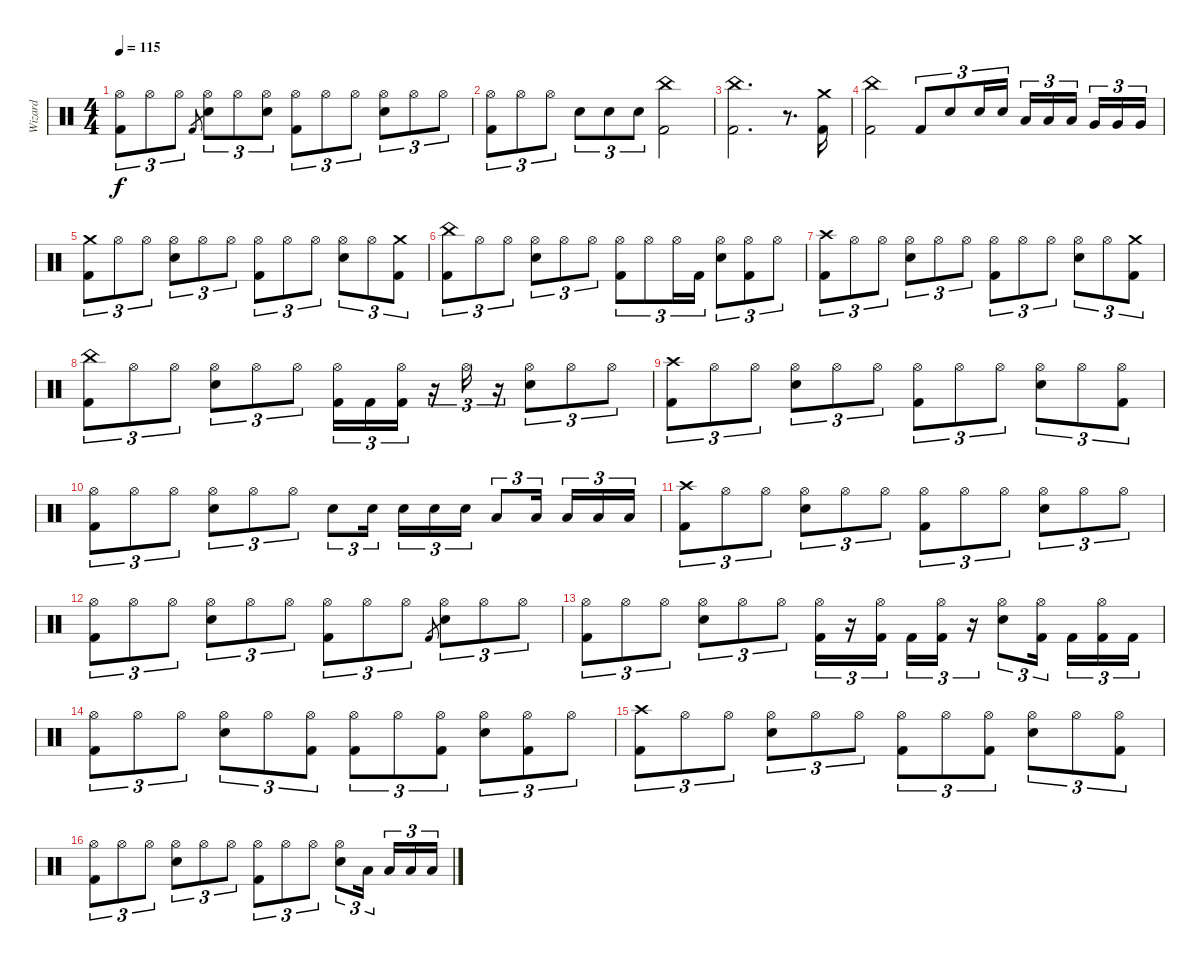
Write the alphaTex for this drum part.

\track ("Wizard" "Wizard") {instrument percussion}
\staff {score}
\articulation defaults
\ts (4 4)
\tempo 115
\clef neutral
\ks c
("Hi-Hat (open)" "Kick (hit) 2").8{tu (3 2) dy f} "Hi-Hat (open)".8{tu (3 2)} "Hi-Hat (open)".8{tu (3 2)} "Kick (hit) 2".8{gr} ("Hi-Hat (open)" "Snare (hit) 2").8{tu (3 2)} "Hi-Hat (open)".8{tu (3 2)} ("Hi-Hat (open)" "Snare (hit) 2").8{tu (3 2)} ("Hi-Hat (open)" "Kick (hit) 2").8{tu (3 2)} "Hi-Hat (open)".8{tu (3 2)} "Hi-Hat (open)".8{tu (3 2)} ("Hi-Hat (open)" "Snare (hit) 2").8{tu (3 2)} "Hi-Hat (open)".8{tu (3 2)} "Hi-Hat (open)".8{tu (3 2)} |
("Hi-Hat (open)" "Kick (hit) 2").8{tu (3 2)} "Hi-Hat (open)".8{tu (3 2)} "Hi-Hat (open)".8{tu (3 2)} "Snare (hit) 2".8{tu (3 2)} "Snare (hit) 2".8{tu (3 2)} "Snare (hit) 2".8{tu (3 2)} ("China (hit)" "Kick (hit) 2").2 |
("China (hit)" "Kick (hit) 2").2{d} r.8{d} ("Crash medium (hit)" "Kick (hit) 2").16 |
("China (hit)" "Kick (hit) 2").2 "Kick (hit) 2".8{tu (3 2)} "Snare (hit) 2".8{tu (3 2)} "Snare (hit) 2".16{tu (3 2)} "Snare (hit) 2".16{tu (3 2)} "Low Tom (hit)".16{tu (3 2)} "Low Tom (hit)".16{tu (3 2)} "Low Tom (hit)".16{tu (3 2) beam splitsecondary} "Very Low Tom (hit)".16{tu (3 2)} "Very Low Tom (hit)".16{tu (3 2)} "Very Low Tom (hit)".16{tu (3 2)} |
("Crash medium (hit)" "Kick (hit) 2").8{tu (3 2)} "Hi-Hat (open)".8{tu (3 2)} "Hi-Hat (open)".8{tu (3 2)} ("Hi-Hat (open)" "Snare (hit) 2").8{tu (3 2)} "Hi-Hat (open)".8{tu (3 2)} "Hi-Hat (open)".8{tu (3 2)} ("Hi-Hat (open)" "Kick (hit) 2").8{tu (3 2)} "Hi-Hat (open)".8{tu (3 2)} "Hi-Hat (open)".8{tu (3 2)} ("Hi-Hat (open)" "Snare (hit) 2").8{tu (3 2)} "Hi-Hat (open)".8{tu (3 2)} ("Crash medium (hit)" "Kick (hit) 2").8{tu (3 2)} |
("China (hit)" "Kick (hit) 2").8{tu (3 2)} "Hi-Hat (open)".8{tu (3 2)} "Hi-Hat (open)".8{tu (3 2)} ("Hi-Hat (open)" "Snare (hit) 2").8{tu (3 2)} "Hi-Hat (open)".8{tu (3 2)} "Hi-Hat (open)".8{tu (3 2)} ("Hi-Hat (open)" "Kick (hit) 2").8{tu (3 2)} "Hi-Hat (open)".8{tu (3 2)} "Hi-Hat (open)".16{tu (3 2)} "Kick (hit) 2".16{tu (3 2)} ("Hi-Hat (open)" "Snare (hit) 2").8{tu (3 2)} ("Hi-Hat (open)" "Kick (hit) 2").8{tu (3 2)} "Hi-Hat (open)".8{tu (3 2)} |
("Crash high (hit)" "Kick (hit) 2").8{tu (3 2)} "Hi-Hat (open)".8{tu (3 2)} "Hi-Hat (open)".8{tu (3 2)} ("Hi-Hat (open)" "Snare (hit) 2").8{tu (3 2)} "Hi-Hat (open)".8{tu (3 2)} "Hi-Hat (open)".8{tu (3 2)} ("Hi-Hat (open)" "Kick (hit) 2").8{tu (3 2)} "Hi-Hat (open)".8{tu (3 2)} "Hi-Hat (open)".8{tu (3 2)} ("Hi-Hat (open)" "Snare (hit) 2").8{tu (3 2)} "Hi-Hat (open)".8{tu (3 2)} ("Crash medium (hit)" "Kick (hit) 2").8{tu (3 2)} |
("China (hit)" "Kick (hit) 2").8{tu (3 2)} "Hi-Hat (open)".8{tu (3 2)} "Hi-Hat (open)".8{tu (3 2)} ("Hi-Hat (open)" "Snare (hit) 2").8{tu (3 2)} "Hi-Hat (open)".8{tu (3 2)} "Hi-Hat (open)".8{tu (3 2)} ("Hi-Hat (open)" "Kick (hit) 2").16{tu (3 2)} "Kick (hit) 2".16{tu (3 2)} ("Hi-Hat (open)" "Kick (hit) 2").16{tu (3 2)} r.16{tu (3 2)} "Hi-Hat (open)".16{tu (3 2)} r.16{tu (3 2)} ("Hi-Hat (open)" "Snare (hit) 2").8{tu (3 2)} "Hi-Hat (open)".8{tu (3 2)} "Hi-Hat (open)".8{tu (3 2)} |
("Crash high (hit)" "Kick (hit) 2").8{tu (3 2)} "Hi-Hat (open)".8{tu (3 2)} "Hi-Hat (open)".8{tu (3 2)} ("Hi-Hat (open)" "Snare (hit) 2").8{tu (3 2)} "Hi-Hat (open)".8{tu (3 2)} "Hi-Hat (open)".8{tu (3 2)} ("Hi-Hat (open)" "Kick (hit) 2").8{tu (3 2)} "Hi-Hat (open)".8{tu (3 2)} "Hi-Hat (open)".8{tu (3 2)} ("Hi-Hat (open)" "Snare (hit) 2").8{tu (3 2)} "Hi-Hat (open)".8{tu (3 2)} ("Hi-Hat (open)" "Kick (hit) 2").8{tu (3 2)} |
("Hi-Hat (open)" "Kick (hit) 2").8{tu (3 2)} "Hi-Hat (open)".8{tu (3 2)} "Hi-Hat (open)".8{tu (3 2)} ("Hi-Hat (open)" "Snare (hit) 2").8{tu (3 2)} "Hi-Hat (open)".8{tu (3 2)} "Hi-Hat (open)".8{tu (3 2)} "Snare (hit) 2".8{tu (3 2)} "Snare (hit) 2".16{tu (3 2) beam splitsecondary} "Snare (hit) 2".16{tu (3 2)} "Snare (hit) 2".16{tu (3 2)} "Snare (hit) 2".16{tu (3 2)} "Low Tom (hit)".8{tu (3 2)} "Low Tom (hit)".16{tu (3 2) beam splitsecondary} "Low Tom (hit)".16{tu (3 2)} "Low Tom (hit)".16{tu (3 2)} "Low Tom (hit)".16{tu (3 2)} |
("Crash high (hit)" "Kick (hit) 2").8{tu (3 2)} "Hi-Hat (open)".8{tu (3 2)} "Hi-Hat (open)".8{tu (3 2)} ("Hi-Hat (open)" "Snare (hit) 2").8{tu (3 2)} "Hi-Hat (open)".8{tu (3 2)} "Hi-Hat (open)".8{tu (3 2)} ("Hi-Hat (open)" "Kick (hit) 2").8{tu (3 2)} "Hi-Hat (open)".8{tu (3 2)} "Hi-Hat (open)".8{tu (3 2)} ("Hi-Hat (open)" "Snare (hit) 2").8{tu (3 2)} "Hi-Hat (open)".8{tu (3 2)} "Hi-Hat (open)".8{tu (3 2)} |
("Hi-Hat (open)" "Kick (hit) 2").8{tu (3 2)} "Hi-Hat (open)".8{tu (3 2)} "Hi-Hat (open)".8{tu (3 2)} ("Hi-Hat (open)" "Snare (hit) 2").8{tu (3 2)} "Hi-Hat (open)".8{tu (3 2)} "Hi-Hat (open)".8{tu (3 2)} ("Hi-Hat (open)" "Kick (hit) 2").8{tu (3 2)} "Hi-Hat (open)".8{tu (3 2)} "Hi-Hat (open)".8{tu (3 2)} "Kick (hit) 2".8{gr} ("Hi-Hat (open)" "Snare (hit) 2").8{tu (3 2)} "Hi-Hat (open)".8{tu (3 2)} "Hi-Hat (open)".8{tu (3 2)} |
("Hi-Hat (open)" "Kick (hit) 2").8{tu (3 2)} "Hi-Hat (open)".8{tu (3 2)} "Hi-Hat (open)".8{tu (3 2)} ("Hi-Hat (open)" "Snare (hit) 2").8{tu (3 2)} "Hi-Hat (open)".8{tu (3 2)} "Hi-Hat (open)".8{tu (3 2)} ("Hi-Hat (open)" "Kick (hit) 2").16{tu (3 2)} r.16{tu (3 2)} ("Hi-Hat (open)" "Kick (hit) 2").16{tu (3 2) beam splitsecondary} "Kick (hit) 2".16{tu (3 2)} ("Hi-Hat (open)" "Kick (hit) 2").16{tu (3 2)} r.16{tu (3 2)} ("Hi-Hat (open)" "Snare (hit) 2").8{tu (3 2)} ("Hi-Hat (open)" "Kick (hit) 2").16{tu (3 2) beam splitsecondary} "Kick (hit) 2".16{tu (3 2)} ("Hi-Hat (open)" "Kick (hit) 2").16{tu (3 2)} "Kick (hit) 2".16{tu (3 2)} |
("Hi-Hat (open)" "Kick (hit) 2").8{tu (3 2)} "Hi-Hat (open)".8{tu (3 2)} "Hi-Hat (open)".8{tu (3 2)} ("Hi-Hat (open)" "Snare (hit) 2").8{tu (3 2)} "Hi-Hat (open)".8{tu (3 2)} ("Hi-Hat (open)" "Kick (hit) 2").8{tu (3 2)} ("Hi-Hat (open)" "Kick (hit) 2").8{tu (3 2)} "Hi-Hat (open)".8{tu (3 2)} ("Hi-Hat (open)" "Kick (hit) 2").8{tu (3 2)} ("Hi-Hat (open)" "Snare (hit) 2").8{tu (3 2)} ("Hi-Hat (open)" "Kick (hit) 2").8{tu (3 2)} "Hi-Hat (open)".8{tu (3 2)} |
("Crash high (hit)" "Kick (hit) 2").8{tu (3 2)} "Hi-Hat (open)".8{tu (3 2)} "Hi-Hat (open)".8{tu (3 2)} ("Hi-Hat (open)" "Snare (hit) 2").8{tu (3 2)} "Hi-Hat (open)".8{tu (3 2)} "Hi-Hat (open)".8{tu (3 2)} ("Hi-Hat (open)" "Kick (hit) 2").8{tu (3 2)} "Hi-Hat (open)".8{tu (3 2)} ("Hi-Hat (open)" "Kick (hit) 2").8{tu (3 2)} ("Hi-Hat (open)" "Snare (hit) 2").8{tu (3 2)} "Hi-Hat (open)".8{tu (3 2)} ("Hi-Hat (open)" "Kick (hit) 2").8{tu (3 2)} |
("Hi-Hat (open)" "Kick (hit) 2").8{tu (3 2)} "Hi-Hat (open)".8{tu (3 2)} "Hi-Hat (open)".8{tu (3 2)} ("Hi-Hat (open)" "Snare (hit) 2").8{tu (3 2)} "Hi-Hat (open)".8{tu (3 2)} "Hi-Hat (open)".8{tu (3 2)} ("Hi-Hat (open)" "Kick (hit) 2").8{tu (3 2)} "Hi-Hat (open)".8{tu (3 2)} "Hi-Hat (open)".8{tu (3 2)} ("Hi-Hat (open)" "Snare (hit) 2").8{tu (3 2)} "Low Tom (hit)".16{tu (3 2) beam splitsecondary} "Low Tom (hit)".16{tu (3 2)} "Low Tom (hit)".16{tu (3 2)} "Low Tom (hit)".16{tu (3 2)}
